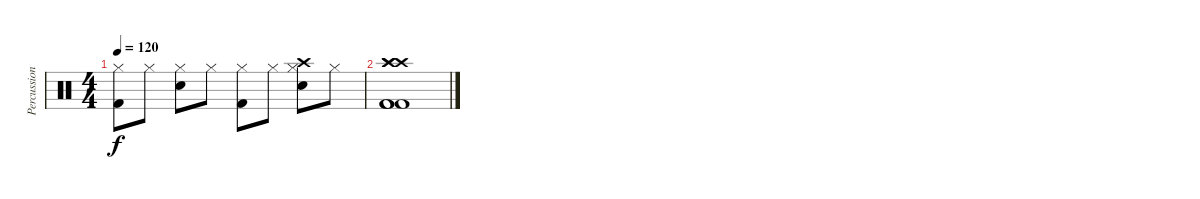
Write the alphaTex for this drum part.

\track ("Percussion" "Percussion") {instrument percussion}
\staff {score}
\articulation defaults
\ts (4 4)
\tempo 120
\clef neutral
\ks c
("Hi-Hat (closed)" "Kick (hit) 2").8{dy f} "Hi-Hat (closed)".8 ("Hi-Hat (closed)" "Electric Snare (hit)").8 "Hi-Hat (closed)".8 ("Hi-Hat (closed)" "Kick (hit) 2").8 "Hi-Hat (closed)".8 ("Hi-Hat (closed)" "Electric Snare (hit)" "Crash high (hit)").8 "Hi-Hat (closed)".8 |
("Kick (hit) 2" "Kick (hit) 2" "Kick (hit) 2" "Crash high (hit)" "Crash high (hit)" "Crash high (hit)").1
